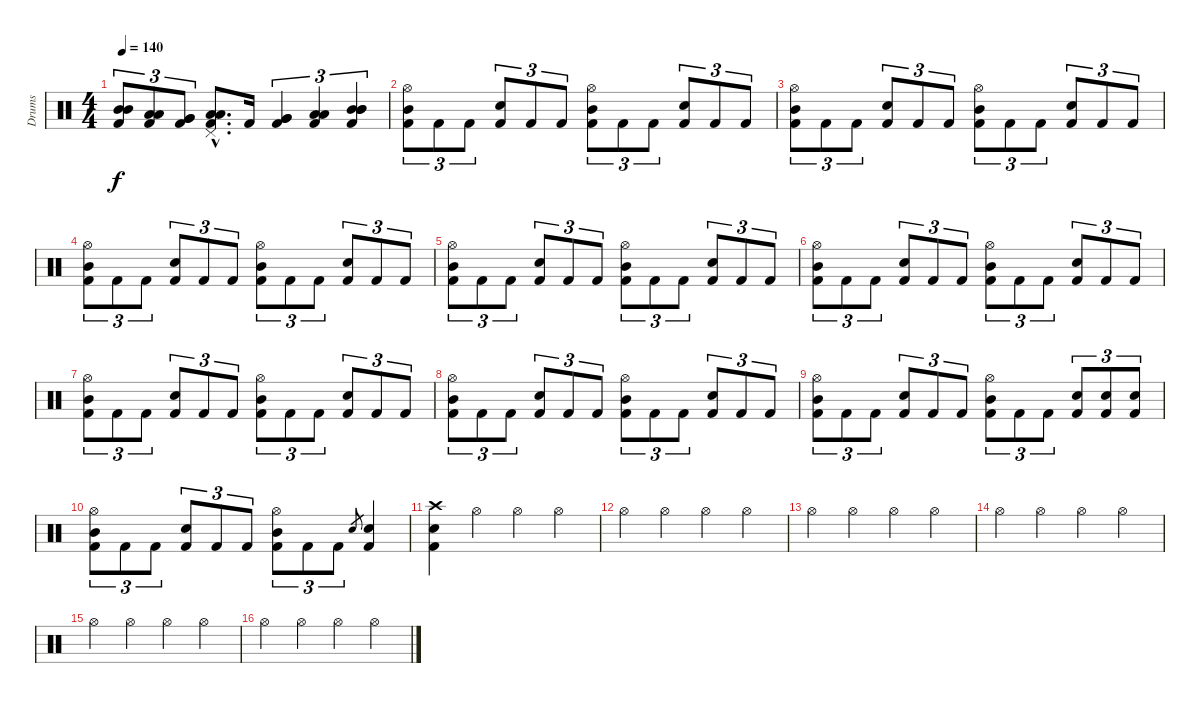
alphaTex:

\track ("Drums" "Drums") {instrument percussion}
\staff {score}
\articulation defaults
\ts (4 4)
\tempo 140
\clef neutral
\ks c
("Mid Tom (hit)" "Mid Tom (hit)" "Kick (hit) 2").8{tu (3 2) dy f} ("Low Tom (hit)" "Low Tom (hit)" "Kick (hit) 2").8{tu (3 2)} ("Very Low Tom (hit)" "Very Low Tom (hit)" "Kick (hit) 2").8{tu (3 2)} ("Pedal Hi-Hat (hit)"{hac} "Low Floor Tom (hit)"{hac} "Low Floor Tom (hit)"{hac} "Kick (hit) 2"{hac}).8{d} "Kick (hit) 2".16 ("Very Low Tom (hit)" "Very Low Tom (hit)" "Kick (hit) 2").4{tu (3 2)} ("Low Tom (hit)" "Low Tom (hit)" "Kick (hit) 2").4{tu (3 2)} ("Mid Tom (hit)" "Mid Tom (hit)" "Mid Tom (hit)" "Kick (hit) 2").4{tu (3 2)} |
("Hi-Hat (open)" "Mid Tom (hit)" "Kick (hit) 2").8{tu (3 2)} "Kick (hit) 2".8{tu (3 2)} "Kick (hit) 2".8{tu (3 2)} ("Electric Snare (hit)" "Kick (hit) 2").8{tu (3 2)} "Kick (hit) 2".8{tu (3 2)} "Kick (hit) 2".8{tu (3 2)} ("Hi-Hat (open)" "Mid Tom (hit)" "Kick (hit) 2").8{tu (3 2)} "Kick (hit) 2".8{tu (3 2)} "Kick (hit) 2".8{tu (3 2)} ("Electric Snare (hit)" "Kick (hit) 2").8{tu (3 2)} "Kick (hit) 2".8{tu (3 2)} "Kick (hit) 2".8{tu (3 2)} |
("Hi-Hat (open)" "Mid Tom (hit)" "Kick (hit) 2").8{tu (3 2)} "Kick (hit) 2".8{tu (3 2)} "Kick (hit) 2".8{tu (3 2)} ("Electric Snare (hit)" "Kick (hit) 2").8{tu (3 2)} "Kick (hit) 2".8{tu (3 2)} "Kick (hit) 2".8{tu (3 2)} ("Hi-Hat (open)" "Mid Tom (hit)" "Kick (hit) 2").8{tu (3 2)} "Kick (hit) 2".8{tu (3 2)} "Kick (hit) 2".8{tu (3 2)} ("Electric Snare (hit)" "Kick (hit) 2").8{tu (3 2)} "Kick (hit) 2".8{tu (3 2)} "Kick (hit) 2".8{tu (3 2)} |
("Hi-Hat (open)" "Mid Tom (hit)" "Kick (hit) 2").8{tu (3 2)} "Kick (hit) 2".8{tu (3 2)} "Kick (hit) 2".8{tu (3 2)} ("Electric Snare (hit)" "Kick (hit) 2").8{tu (3 2)} "Kick (hit) 2".8{tu (3 2)} "Kick (hit) 2".8{tu (3 2)} ("Hi-Hat (open)" "Mid Tom (hit)" "Kick (hit) 2").8{tu (3 2)} "Kick (hit) 2".8{tu (3 2)} "Kick (hit) 2".8{tu (3 2)} ("Electric Snare (hit)" "Kick (hit) 2").8{tu (3 2)} "Kick (hit) 2".8{tu (3 2)} "Kick (hit) 2".8{tu (3 2)} |
("Hi-Hat (open)" "Mid Tom (hit)" "Kick (hit) 2").8{tu (3 2)} "Kick (hit) 2".8{tu (3 2)} "Kick (hit) 2".8{tu (3 2)} ("Electric Snare (hit)" "Kick (hit) 2").8{tu (3 2)} "Kick (hit) 2".8{tu (3 2)} "Kick (hit) 2".8{tu (3 2)} ("Hi-Hat (open)" "Mid Tom (hit)" "Kick (hit) 2").8{tu (3 2)} "Kick (hit) 2".8{tu (3 2)} "Kick (hit) 2".8{tu (3 2)} ("Electric Snare (hit)" "Kick (hit) 2").8{tu (3 2)} "Kick (hit) 2".8{tu (3 2)} "Kick (hit) 2".8{tu (3 2)} |
("Hi-Hat (open)" "Mid Tom (hit)" "Kick (hit) 2").8{tu (3 2)} "Kick (hit) 2".8{tu (3 2)} "Kick (hit) 2".8{tu (3 2)} ("Electric Snare (hit)" "Kick (hit) 2").8{tu (3 2)} "Kick (hit) 2".8{tu (3 2)} "Kick (hit) 2".8{tu (3 2)} ("Hi-Hat (open)" "Mid Tom (hit)" "Kick (hit) 2").8{tu (3 2)} "Kick (hit) 2".8{tu (3 2)} "Kick (hit) 2".8{tu (3 2)} ("Electric Snare (hit)" "Kick (hit) 2").8{tu (3 2)} "Kick (hit) 2".8{tu (3 2)} "Kick (hit) 2".8{tu (3 2)} |
("Hi-Hat (open)" "Mid Tom (hit)" "Kick (hit) 2").8{tu (3 2)} "Kick (hit) 2".8{tu (3 2)} "Kick (hit) 2".8{tu (3 2)} ("Electric Snare (hit)" "Kick (hit) 2").8{tu (3 2)} "Kick (hit) 2".8{tu (3 2)} "Kick (hit) 2".8{tu (3 2)} ("Hi-Hat (open)" "Mid Tom (hit)" "Kick (hit) 2").8{tu (3 2)} "Kick (hit) 2".8{tu (3 2)} "Kick (hit) 2".8{tu (3 2)} ("Electric Snare (hit)" "Kick (hit) 2").8{tu (3 2)} "Kick (hit) 2".8{tu (3 2)} "Kick (hit) 2".8{tu (3 2)} |
("Hi-Hat (open)" "Mid Tom (hit)" "Kick (hit) 2").8{tu (3 2)} "Kick (hit) 2".8{tu (3 2)} "Kick (hit) 2".8{tu (3 2)} ("Electric Snare (hit)" "Kick (hit) 2").8{tu (3 2)} "Kick (hit) 2".8{tu (3 2)} "Kick (hit) 2".8{tu (3 2)} ("Hi-Hat (open)" "Mid Tom (hit)" "Kick (hit) 2").8{tu (3 2)} "Kick (hit) 2".8{tu (3 2)} "Kick (hit) 2".8{tu (3 2)} ("Electric Snare (hit)" "Kick (hit) 2").8{tu (3 2)} "Kick (hit) 2".8{tu (3 2)} "Kick (hit) 2".8{tu (3 2)} |
("Hi-Hat (open)" "Mid Tom (hit)" "Kick (hit) 2").8{tu (3 2)} "Kick (hit) 2".8{tu (3 2)} "Kick (hit) 2".8{tu (3 2)} ("Electric Snare (hit)" "Kick (hit) 2").8{tu (3 2)} "Kick (hit) 2".8{tu (3 2)} "Kick (hit) 2".8{tu (3 2)} ("Hi-Hat (open)" "Mid Tom (hit)" "Kick (hit) 2").8{tu (3 2)} "Kick (hit) 2".8{tu (3 2)} "Kick (hit) 2".8{tu (3 2)} ("Snare (hit) 2" "Kick (hit) 2").8{tu (3 2)} ("Snare (hit) 2" "Kick (hit) 2").8{tu (3 2)} ("Snare (hit) 2" "Kick (hit) 2").8{tu (3 2)} |
("Hi-Hat (open)" "Mid Tom (hit)" "Kick (hit) 2").8{tu (3 2)} "Kick (hit) 2".8{tu (3 2)} "Kick (hit) 2".8{tu (3 2)} ("Electric Snare (hit)" "Kick (hit) 2").8{tu (3 2)} "Kick (hit) 2".8{tu (3 2)} "Kick (hit) 2".8{tu (3 2)} ("Hi-Hat (open)" "Mid Tom (hit)" "Kick (hit) 2").8{tu (3 2)} "Kick (hit) 2".8{tu (3 2)} "Kick (hit) 2".8{tu (3 2)} "Snare (hit) 2".8{gr} ("Electric Snare (hit)" "Kick (hit) 2").4 |
("Crash high (hit)" "Snare (hit) 2" "Kick (hit) 2").4 "Hi-Hat (open)".4 "Hi-Hat (open)".4 "Hi-Hat (open)".4 |
"Hi-Hat (open)".4 "Hi-Hat (open)".4 "Hi-Hat (open)".4 "Hi-Hat (open)".4 |
"Hi-Hat (open)".4 "Hi-Hat (open)".4 "Hi-Hat (open)".4 "Hi-Hat (open)".4 |
"Hi-Hat (open)".4 "Hi-Hat (open)".4 "Hi-Hat (open)".4 "Hi-Hat (open)".4 |
"Hi-Hat (open)".4 "Hi-Hat (open)".4 "Hi-Hat (open)".4 "Hi-Hat (open)".4 |
"Hi-Hat (open)".4 "Hi-Hat (open)".4 "Hi-Hat (open)".4 "Hi-Hat (open)".4
